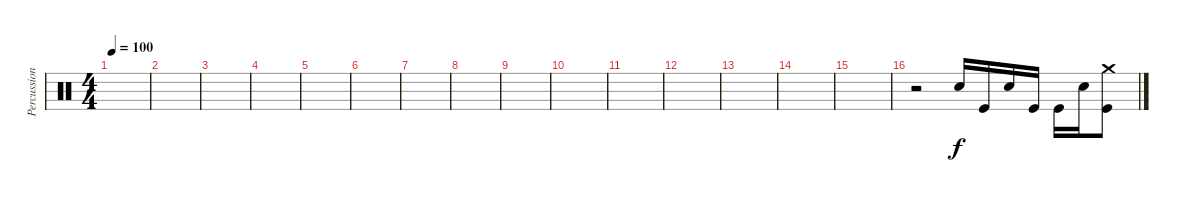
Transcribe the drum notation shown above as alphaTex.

\track ("Percussion" "Percussion") {instrument percussion}
\staff {score}
\articulation defaults
\ts (4 4)
\tempo 100
\clef neutral
\ks c
|
|
|
|
|
|
|
|
|
|
|
|
|
|
|
r.2 "Snare (hit) 2".16 "Kick (hit)".16 "Snare (hit) 2".16 "Kick (hit)".16 "Kick (hit)".16 "Snare (hit) 2".16 ("Crash medium (hit)" "Kick (hit)").8
